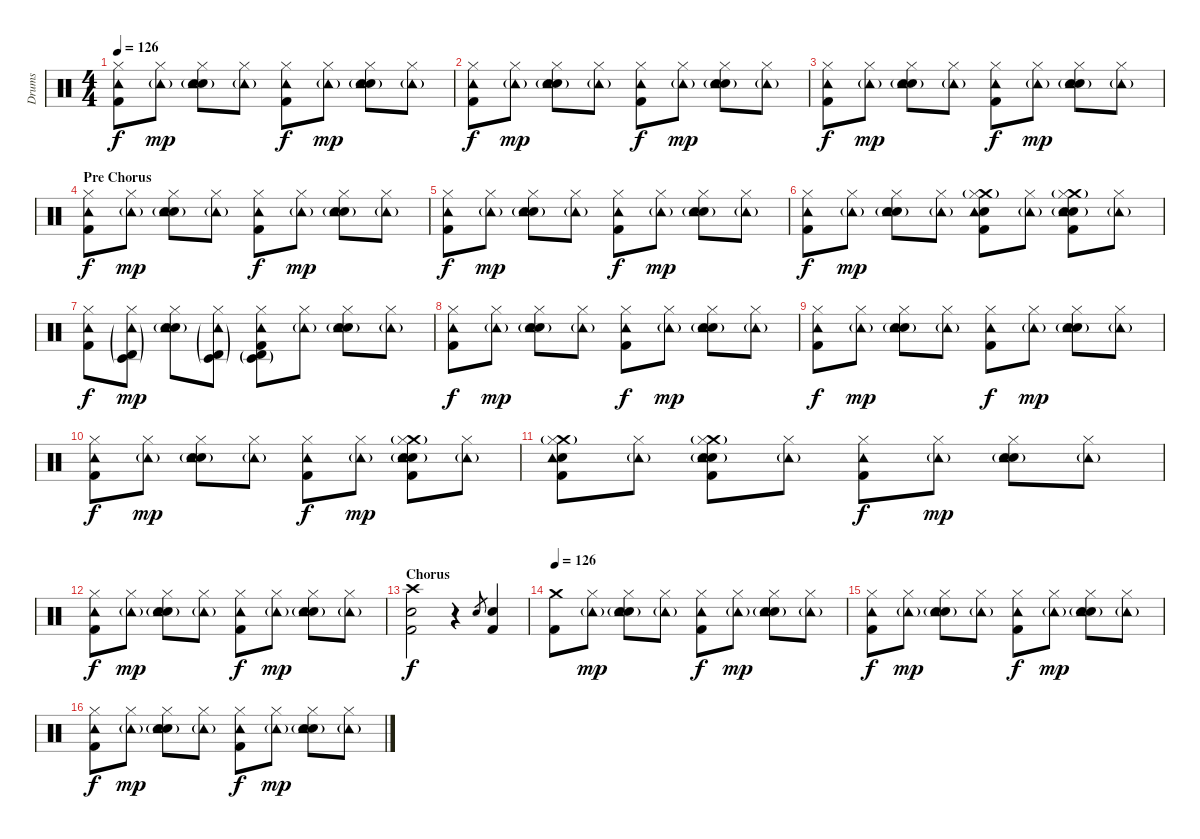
\track ("Drums" "Drums") {instrument percussion}
\staff {score}
\articulation defaults
\ts (4 4)
\tempo 126
\clef neutral
\ks c
("Kick (hit) 2" "Hi-Hat (closed)" "Tambourine (hit)").8{dy f} ("Hi-Hat (closed)" "Tambourine (hit)"{g}).8{dy mp} ("Snare (hit) 2" "Hi-Hat (closed)" "Tambourine (hit)" "Hand Clap (hit)"{g}).8 ("Hi-Hat (closed)" "Tambourine (hit)"{g}).8 ("Kick (hit) 2" "Hi-Hat (closed)" "Tambourine (hit)").8{dy f} ("Hi-Hat (closed)" "Tambourine (hit)"{g}).8{dy mp} ("Snare (hit) 2" "Hi-Hat (closed)" "Tambourine (hit)" "Hand Clap (hit)"{g}).8 ("Hi-Hat (closed)" "Tambourine (hit)"{g}).8 |
("Kick (hit) 2" "Hi-Hat (closed)" "Tambourine (hit)").8{dy f} ("Hi-Hat (closed)" "Tambourine (hit)"{g}).8{dy mp} ("Snare (hit) 2" "Hi-Hat (closed)" "Tambourine (hit)" "Hand Clap (hit)"{g}).8 ("Hi-Hat (closed)" "Tambourine (hit)"{g}).8 ("Kick (hit) 2" "Hi-Hat (closed)" "Tambourine (hit)").8{dy f} ("Hi-Hat (closed)" "Tambourine (hit)"{g}).8{dy mp} ("Snare (hit) 2" "Hi-Hat (closed)" "Tambourine (hit)" "Hand Clap (hit)"{g}).8 ("Hi-Hat (closed)" "Tambourine (hit)"{g}).8 |
("Kick (hit) 2" "Hi-Hat (closed)" "Tambourine (hit)").8{dy f} ("Hi-Hat (closed)" "Tambourine (hit)"{g}).8{dy mp} ("Snare (hit) 2" "Hi-Hat (closed)" "Tambourine (hit)" "Hand Clap (hit)"{g}).8 ("Hi-Hat (closed)" "Tambourine (hit)"{g}).8 ("Kick (hit) 2" "Hi-Hat (closed)" "Tambourine (hit)").8{dy f} ("Hi-Hat (closed)" "Tambourine (hit)"{g}).8{dy mp} ("Snare (hit) 2" "Hi-Hat (closed)" "Tambourine (hit)" "Hand Clap (hit)"{g}).8 ("Hi-Hat (closed)" "Tambourine (hit)"{g}).8 |
\section ("" "Pre Chorus")
("Kick (hit) 2" "Hi-Hat (closed)" "Tambourine (hit)").8{dy f} ("Hi-Hat (closed)" "Tambourine (hit)"{g}).8{dy mp} ("Snare (hit) 2" "Hi-Hat (closed)" "Tambourine (hit)" "Hand Clap (hit)"{g}).8 ("Hi-Hat (closed)" "Tambourine (hit)"{g}).8 ("Kick (hit) 2" "Hi-Hat (closed)" "Tambourine (hit)").8{dy f} ("Hi-Hat (closed)" "Tambourine (hit)"{g}).8{dy mp} ("Snare (hit) 2" "Hi-Hat (closed)" "Tambourine (hit)" "Hand Clap (hit)"{g}).8 ("Hi-Hat (closed)" "Tambourine (hit)"{g}).8 |
("Kick (hit) 2" "Hi-Hat (closed)" "Tambourine (hit)").8{dy f} ("Hi-Hat (closed)" "Tambourine (hit)"{g}).8{dy mp} ("Snare (hit) 2" "Hi-Hat (closed)" "Tambourine (hit)" "Hand Clap (hit)"{g}).8 ("Hi-Hat (closed)" "Tambourine (hit)"{g}).8 ("Kick (hit) 2" "Hi-Hat (closed)" "Tambourine (hit)").8{dy f} ("Hi-Hat (closed)" "Tambourine (hit)"{g}).8{dy mp} ("Snare (hit) 2" "Hi-Hat (closed)" "Tambourine (hit)" "Hand Clap (hit)"{g}).8 ("Hi-Hat (closed)" "Tambourine (hit)"{g}).8 |
("Kick (hit) 2" "Hi-Hat (closed)" "Tambourine (hit)").8{dy f} ("Hi-Hat (closed)" "Tambourine (hit)"{g}).8{dy mp} ("Snare (hit) 2" "Hi-Hat (closed)" "Tambourine (hit)" "Hand Clap (hit)"{g}).8 ("Hi-Hat (closed)" "Tambourine (hit)"{g}).8 ("Kick (hit) 2" "Crash medium (hit)"{g} "Snare (hit) 2" "Hi-Hat (closed)" "Tambourine (hit)").8 ("Hi-Hat (closed)" "Tambourine (hit)"{g}).8 ("Kick (hit) 2" "Crash medium (hit)"{g} "Snare (hit) 2" "Hi-Hat (closed)" "Tambourine (hit)" "Hand Clap (hit)"{g}).8 ("Hi-Hat (closed)" "Tambourine (hit)"{g}).8 |
("Kick (hit) 2" "Hi-Hat (closed)" "Tambourine (hit)").8{dy f} ("Timbale low (hit)"{g} "Timbale high (hit)"{g} "Hi-Hat (closed)" "Tambourine (hit)"{g}).8{dy mp} ("Snare (hit) 2" "Hi-Hat (closed)" "Tambourine (hit)" "Hand Clap (hit)"{g}).8 ("Timbale low (hit)"{g} "Timbale high (hit)"{g} "Hi-Hat (closed)" "Tambourine (hit)"{g}).8 ("Kick (hit) 2" "Timbale low (hit)"{g} "Timbale high (hit)"{g} "Hi-Hat (closed)" "Tambourine (hit)").8 ("Hi-Hat (closed)" "Tambourine (hit)"{g}).8 ("Snare (hit) 2" "Hi-Hat (closed)" "Tambourine (hit)" "Hand Clap (hit)"{g}).8 ("Hi-Hat (closed)" "Tambourine (hit)"{g}).8 |
("Kick (hit) 2" "Hi-Hat (closed)" "Tambourine (hit)").8{dy f} ("Hi-Hat (closed)" "Tambourine (hit)"{g}).8{dy mp} ("Snare (hit) 2" "Hi-Hat (closed)" "Tambourine (hit)" "Hand Clap (hit)"{g}).8 ("Hi-Hat (closed)" "Tambourine (hit)"{g}).8 ("Kick (hit) 2" "Hi-Hat (closed)" "Tambourine (hit)").8{dy f} ("Hi-Hat (closed)" "Tambourine (hit)"{g}).8{dy mp} ("Snare (hit) 2" "Hi-Hat (closed)" "Tambourine (hit)" "Hand Clap (hit)"{g}).8 ("Hi-Hat (closed)" "Tambourine (hit)"{g}).8 |
("Kick (hit) 2" "Hi-Hat (closed)" "Tambourine (hit)").8{dy f} ("Hi-Hat (closed)" "Tambourine (hit)"{g}).8{dy mp} ("Snare (hit) 2" "Hi-Hat (closed)" "Tambourine (hit)" "Hand Clap (hit)"{g}).8 ("Hi-Hat (closed)" "Tambourine (hit)"{g}).8 ("Kick (hit) 2" "Hi-Hat (closed)" "Tambourine (hit)").8{dy f} ("Hi-Hat (closed)" "Tambourine (hit)"{g}).8{dy mp} ("Snare (hit) 2" "Hi-Hat (closed)" "Tambourine (hit)" "Hand Clap (hit)"{g}).8 ("Hi-Hat (closed)" "Tambourine (hit)"{g}).8 |
("Kick (hit) 2" "Hi-Hat (closed)" "Tambourine (hit)").8{dy f} ("Hi-Hat (closed)" "Tambourine (hit)"{g}).8{dy mp} ("Snare (hit) 2" "Hi-Hat (closed)" "Tambourine (hit)" "Hand Clap (hit)"{g}).8 ("Hi-Hat (closed)" "Tambourine (hit)"{g}).8 ("Kick (hit) 2" "Hi-Hat (closed)" "Tambourine (hit)").8{dy f} ("Hi-Hat (closed)" "Tambourine (hit)"{g}).8{dy mp} ("Kick (hit) 2" "Crash medium (hit)"{g} "Snare (hit) 2" "Hi-Hat (closed)" "Tambourine (hit)" "Hand Clap (hit)"{g}).8 ("Hi-Hat (closed)" "Tambourine (hit)"{g}).8 |
("Kick (hit) 2" "Crash medium (hit)"{g} "Snare (hit) 2" "Hi-Hat (closed)" "Tambourine (hit)").8 ("Hi-Hat (closed)" "Tambourine (hit)"{g}).8 ("Kick (hit) 2" "Crash medium (hit)"{g} "Snare (hit) 2" "Hi-Hat (closed)" "Tambourine (hit)" "Hand Clap (hit)"{g}).8 ("Hi-Hat (closed)" "Tambourine (hit)"{g}).8 ("Kick (hit) 2" "Hi-Hat (closed)" "Tambourine (hit)").8{dy f} ("Hi-Hat (closed)" "Tambourine (hit)"{g}).8{dy mp} ("Snare (hit) 2" "Hi-Hat (closed)" "Tambourine (hit)" "Hand Clap (hit)"{g}).8 ("Hi-Hat (closed)" "Tambourine (hit)"{g}).8 |
("Kick (hit) 2" "Hi-Hat (closed)" "Tambourine (hit)").8{dy f} ("Hi-Hat (closed)" "Tambourine (hit)"{g}).8{dy mp} ("Snare (hit) 2" "Hi-Hat (closed)" "Tambourine (hit)" "Hand Clap (hit)"{g}).8 ("Hi-Hat (closed)" "Tambourine (hit)"{g}).8 ("Kick (hit) 2" "Hi-Hat (closed)" "Tambourine (hit)").8{dy f} ("Hi-Hat (closed)" "Tambourine (hit)"{g}).8{dy mp} ("Snare (hit) 2" "Hi-Hat (closed)" "Tambourine (hit)" "Hand Clap (hit)"{g}).8 ("Hi-Hat (closed)" "Tambourine (hit)"{g}).8 |
\section ("" "Chorus")
("Kick (hit) 2" "Snare (hit) 2" "Crash high (hit)").2{dy f} r.4 "Snare (hit) 2".8{gr} ("Kick (hit) 2" "Snare (hit) 2").4 |
\tempo 126
("Kick (hit) 2" "Crash medium (hit)").8 ("Hi-Hat (closed)" "Tambourine (hit)"{g}).8{dy mp} ("Snare (hit) 2" "Hi-Hat (closed)" "Tambourine (hit)" "Hand Clap (hit)"{g}).8 ("Hi-Hat (closed)" "Tambourine (hit)"{g}).8 ("Kick (hit) 2" "Hi-Hat (closed)" "Tambourine (hit)").8{dy f} ("Hi-Hat (closed)" "Tambourine (hit)"{g}).8{dy mp} ("Snare (hit) 2" "Hi-Hat (closed)" "Tambourine (hit)" "Hand Clap (hit)"{g}).8 ("Hi-Hat (closed)" "Tambourine (hit)"{g}).8 |
("Kick (hit) 2" "Hi-Hat (closed)" "Tambourine (hit)").8{dy f} ("Hi-Hat (closed)" "Tambourine (hit)"{g}).8{dy mp} ("Snare (hit) 2" "Hi-Hat (closed)" "Tambourine (hit)" "Hand Clap (hit)"{g}).8 ("Hi-Hat (closed)" "Tambourine (hit)"{g}).8 ("Kick (hit) 2" "Hi-Hat (closed)" "Tambourine (hit)").8{dy f} ("Hi-Hat (closed)" "Tambourine (hit)"{g}).8{dy mp} ("Snare (hit) 2" "Hi-Hat (closed)" "Tambourine (hit)" "Hand Clap (hit)"{g}).8 ("Hi-Hat (closed)" "Tambourine (hit)"{g}).8 |
("Kick (hit) 2" "Hi-Hat (closed)" "Tambourine (hit)").8{dy f} ("Hi-Hat (closed)" "Tambourine (hit)"{g}).8{dy mp} ("Snare (hit) 2" "Hi-Hat (closed)" "Tambourine (hit)" "Hand Clap (hit)"{g}).8 ("Hi-Hat (closed)" "Tambourine (hit)"{g}).8 ("Kick (hit) 2" "Hi-Hat (closed)" "Tambourine (hit)").8{dy f} ("Hi-Hat (closed)" "Tambourine (hit)"{g}).8{dy mp} ("Snare (hit) 2" "Hi-Hat (closed)" "Tambourine (hit)" "Hand Clap (hit)"{g}).8 ("Hi-Hat (closed)" "Tambourine (hit)"{g}).8
